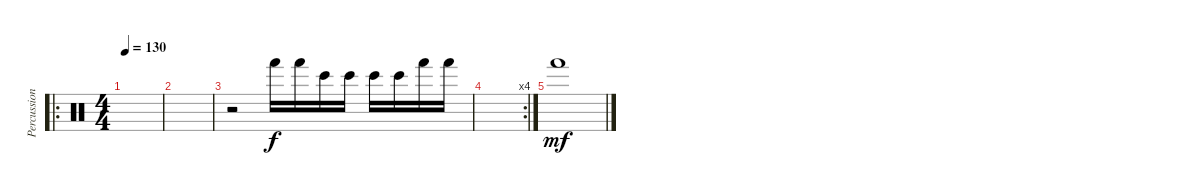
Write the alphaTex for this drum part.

\track ("Percussion" "Percussion") {instrument percussion}
\staff {score}
\articulation defaults
\ro
\ts (4 4)
\tempo 130
\clef neutral
\ks c
|
|
r.2 "Hand (hit)".16 "Hand (hit)".16 "Bongo High (hit)".16 "Bongo High (hit)".16 "Bongo High (hit)".16 "Bongo High (hit)".16 "Hand (hit)".16 "Hand (hit)".16 |
\rc 4
|
"Hand (hit)".1{dy mf}
